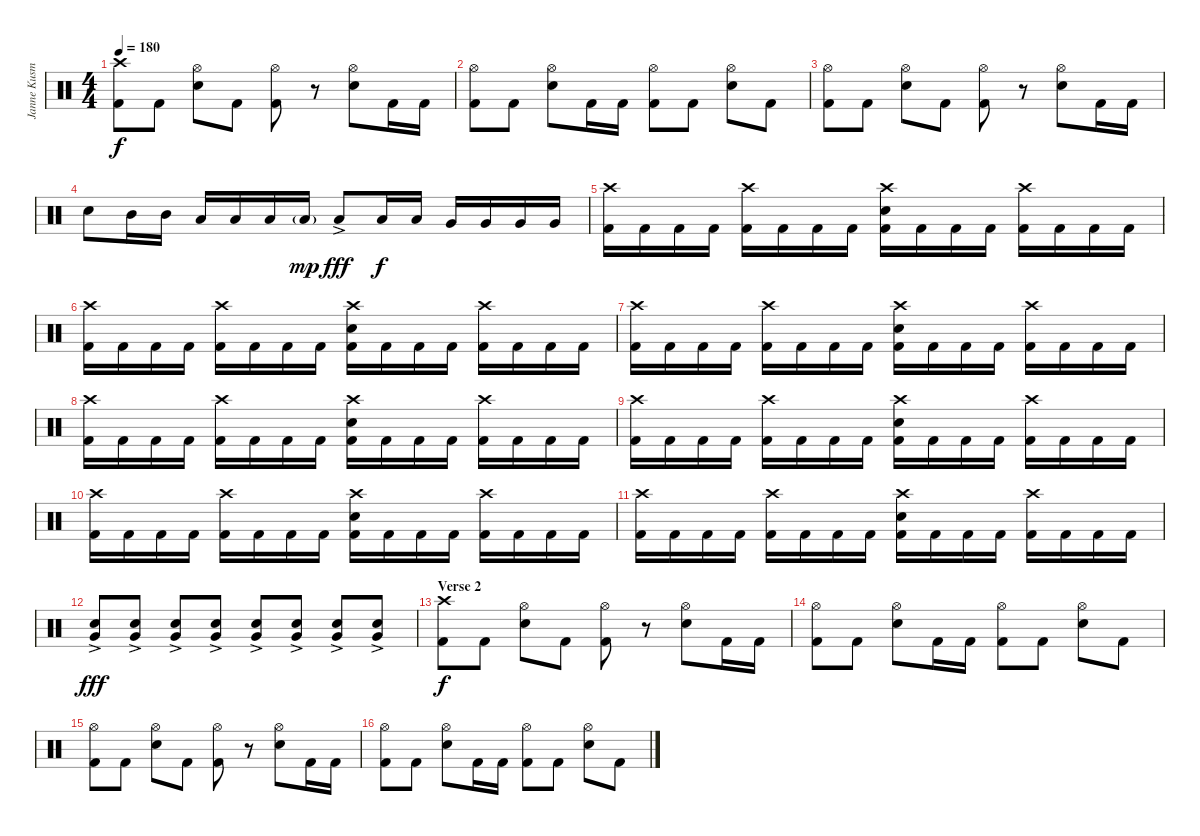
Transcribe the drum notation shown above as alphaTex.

\track ("Janne Kusmin - Drums" "Janne Kusm") {instrument percussion}
\staff {score}
\articulation defaults
\ts (4 4)
\tempo 180
\clef neutral
\ks c
("Crash high (hit)" "Kick (hit) 2").8{dy f} "Kick (hit) 2".8 ("Hi-Hat (open)" "Electric Snare (hit)").8 "Kick (hit) 2".8 ("Hi-Hat (open)" "Kick (hit) 2").8 r.8 ("Hi-Hat (open)" "Electric Snare (hit)").8 "Kick (hit) 2".16 "Kick (hit) 2".16 |
("Hi-Hat (open)" "Kick (hit) 2").8 "Kick (hit) 2".8 ("Hi-Hat (open)" "Electric Snare (hit)").8 "Kick (hit) 2".16 "Kick (hit) 2".16 ("Hi-Hat (open)" "Kick (hit) 2").8 "Kick (hit) 2".8 ("Hi-Hat (open)" "Electric Snare (hit)").8 "Kick (hit) 2".8 |
("Hi-Hat (open)" "Kick (hit) 2").8 "Kick (hit) 2".8 ("Hi-Hat (open)" "Electric Snare (hit)").8 "Kick (hit) 2".8 ("Hi-Hat (open)" "Kick (hit) 2").8 r.8 ("Hi-Hat (open)" "Electric Snare (hit)").8 "Kick (hit) 2".16 "Kick (hit) 2".16 |
"Electric Snare (hit)".8 "Mid Tom (hit)".16 "Mid Tom (hit)".16 "Low Tom (hit)".16 "Low Tom (hit)".16 "Low Tom (hit)".16 "Low Tom (hit)"{g}.16{dy mp} "Low Tom (hit)"{ac}.8{dy fff} "Low Tom (hit)".16{dy f} "Low Tom (hit)".16 "Very Low Tom (hit)".16 "Very Low Tom (hit)".16 "Very Low Tom (hit)".16 "Very Low Tom (hit)".16 |
\section ("" "")
("Crash high (hit)" "Kick (hit) 2").16 "Kick (hit) 2".16 "Kick (hit) 2".16 "Kick (hit) 2".16 ("Crash high (hit)" "Kick (hit) 2").16 "Kick (hit) 2".16 "Kick (hit) 2".16 "Kick (hit) 2".16 ("Crash high (hit)" "Electric Snare (hit)" "Kick (hit) 2").16 "Kick (hit) 2".16 "Kick (hit) 2".16 "Kick (hit) 2".16 ("Crash high (hit)" "Kick (hit) 2").16 "Kick (hit) 2".16 "Kick (hit) 2".16 "Kick (hit) 2".16 |
("Crash high (hit)" "Kick (hit) 2").16 "Kick (hit) 2".16 "Kick (hit) 2".16 "Kick (hit) 2".16 ("Crash high (hit)" "Kick (hit) 2").16 "Kick (hit) 2".16 "Kick (hit) 2".16 "Kick (hit) 2".16 ("Crash high (hit)" "Electric Snare (hit)" "Kick (hit) 2").16 "Kick (hit) 2".16 "Kick (hit) 2".16 "Kick (hit) 2".16 ("Crash high (hit)" "Kick (hit) 2").16 "Kick (hit) 2".16 "Kick (hit) 2".16 "Kick (hit) 2".16 |
("Crash high (hit)" "Kick (hit) 2").16 "Kick (hit) 2".16 "Kick (hit) 2".16 "Kick (hit) 2".16 ("Crash high (hit)" "Kick (hit) 2").16 "Kick (hit) 2".16 "Kick (hit) 2".16 "Kick (hit) 2".16 ("Crash high (hit)" "Electric Snare (hit)" "Kick (hit) 2").16 "Kick (hit) 2".16 "Kick (hit) 2".16 "Kick (hit) 2".16 ("Crash high (hit)" "Kick (hit) 2").16 "Kick (hit) 2".16 "Kick (hit) 2".16 "Kick (hit) 2".16 |
("Crash high (hit)" "Kick (hit) 2").16 "Kick (hit) 2".16 "Kick (hit) 2".16 "Kick (hit) 2".16 ("Crash high (hit)" "Kick (hit) 2").16 "Kick (hit) 2".16 "Kick (hit) 2".16 "Kick (hit) 2".16 ("Crash high (hit)" "Electric Snare (hit)" "Kick (hit) 2").16 "Kick (hit) 2".16 "Kick (hit) 2".16 "Kick (hit) 2".16 ("Crash high (hit)" "Kick (hit) 2").16 "Kick (hit) 2".16 "Kick (hit) 2".16 "Kick (hit) 2".16 |
("Crash high (hit)" "Kick (hit) 2").16 "Kick (hit) 2".16 "Kick (hit) 2".16 "Kick (hit) 2".16 ("Crash high (hit)" "Kick (hit) 2").16 "Kick (hit) 2".16 "Kick (hit) 2".16 "Kick (hit) 2".16 ("Crash high (hit)" "Electric Snare (hit)" "Kick (hit) 2").16 "Kick (hit) 2".16 "Kick (hit) 2".16 "Kick (hit) 2".16 ("Crash high (hit)" "Kick (hit) 2").16 "Kick (hit) 2".16 "Kick (hit) 2".16 "Kick (hit) 2".16 |
("Crash high (hit)" "Kick (hit) 2").16 "Kick (hit) 2".16 "Kick (hit) 2".16 "Kick (hit) 2".16 ("Crash high (hit)" "Kick (hit) 2").16 "Kick (hit) 2".16 "Kick (hit) 2".16 "Kick (hit) 2".16 ("Crash high (hit)" "Electric Snare (hit)" "Kick (hit) 2").16 "Kick (hit) 2".16 "Kick (hit) 2".16 "Kick (hit) 2".16 ("Crash high (hit)" "Kick (hit) 2").16 "Kick (hit) 2".16 "Kick (hit) 2".16 "Kick (hit) 2".16 |
("Crash high (hit)" "Kick (hit) 2").16 "Kick (hit) 2".16 "Kick (hit) 2".16 "Kick (hit) 2".16 ("Crash high (hit)" "Kick (hit) 2").16 "Kick (hit) 2".16 "Kick (hit) 2".16 "Kick (hit) 2".16 ("Crash high (hit)" "Electric Snare (hit)" "Kick (hit) 2").16 "Kick (hit) 2".16 "Kick (hit) 2".16 "Kick (hit) 2".16 ("Crash high (hit)" "Kick (hit) 2").16 "Kick (hit) 2".16 "Kick (hit) 2".16 "Kick (hit) 2".16 |
("Very Low Tom (hit)"{ac} "Electric Snare (hit)").8{dy fff} ("Very Low Tom (hit)"{ac} "Electric Snare (hit)").8 ("Very Low Tom (hit)"{ac} "Electric Snare (hit)").8 ("Very Low Tom (hit)"{ac} "Electric Snare (hit)").8 ("Very Low Tom (hit)"{ac} "Electric Snare (hit)").8 ("Very Low Tom (hit)"{ac} "Electric Snare (hit)").8 ("Very Low Tom (hit)"{ac} "Electric Snare (hit)").8 ("Very Low Tom (hit)"{ac} "Electric Snare (hit)").8 |
\section ("" "Verse 2")
("Crash high (hit)" "Kick (hit) 2").8{dy f} "Kick (hit) 2".8 ("Hi-Hat (open)" "Electric Snare (hit)").8 "Kick (hit) 2".8 ("Hi-Hat (open)" "Kick (hit) 2").8 r.8 ("Hi-Hat (open)" "Electric Snare (hit)").8 "Kick (hit) 2".16 "Kick (hit) 2".16 |
("Hi-Hat (open)" "Kick (hit) 2").8 "Kick (hit) 2".8 ("Hi-Hat (open)" "Electric Snare (hit)").8 "Kick (hit) 2".16 "Kick (hit) 2".16 ("Hi-Hat (open)" "Kick (hit) 2").8 "Kick (hit) 2".8 ("Hi-Hat (open)" "Electric Snare (hit)").8 "Kick (hit) 2".8 |
("Hi-Hat (open)" "Kick (hit) 2").8 "Kick (hit) 2".8 ("Hi-Hat (open)" "Electric Snare (hit)").8 "Kick (hit) 2".8 ("Hi-Hat (open)" "Kick (hit) 2").8 r.8 ("Hi-Hat (open)" "Electric Snare (hit)").8 "Kick (hit) 2".16 "Kick (hit) 2".16 |
("Hi-Hat (open)" "Kick (hit) 2").8 "Kick (hit) 2".8 ("Hi-Hat (open)" "Electric Snare (hit)").8 "Kick (hit) 2".16 "Kick (hit) 2".16 ("Hi-Hat (open)" "Kick (hit) 2").8 "Kick (hit) 2".8 ("Hi-Hat (open)" "Electric Snare (hit)").8 "Kick (hit) 2".8
